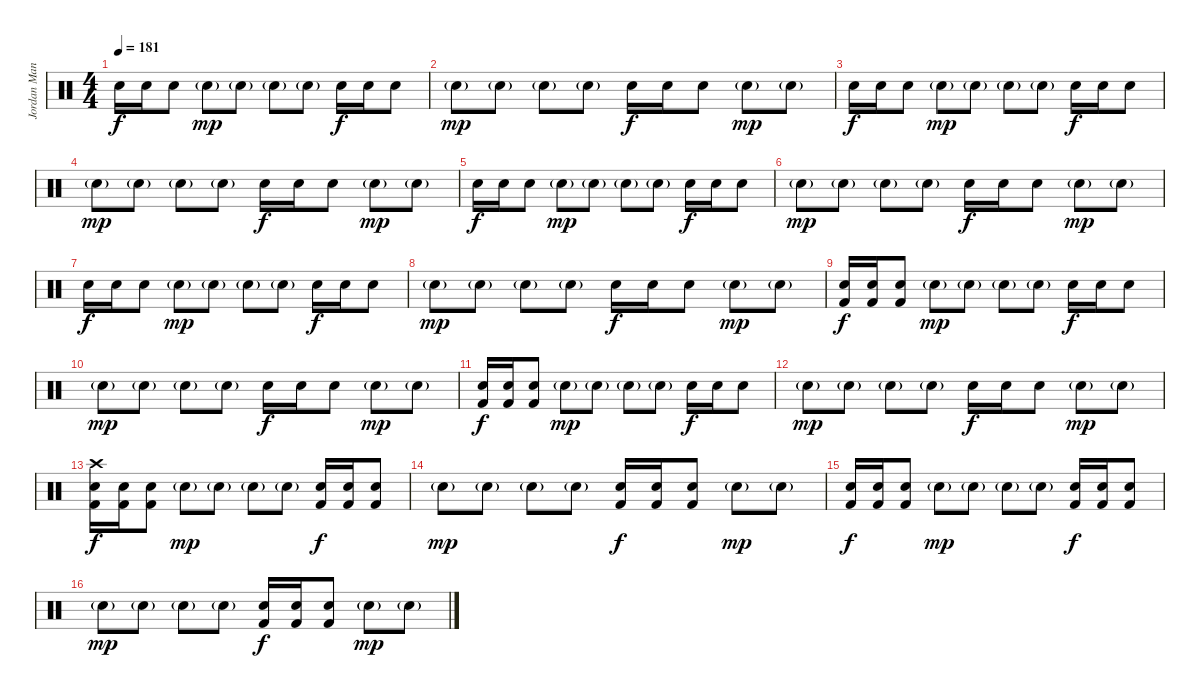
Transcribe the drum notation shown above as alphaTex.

\track ("Jordan Mancino" "Jordan Man") {instrument percussion}
\staff {score}
\articulation defaults
\ts (4 4)
\section ("" "")
\tempo 181
\clef neutral
\ks c "Electric Snare (hit)".16{dy f volume 0} "Electric Snare (hit)".16{volume 7} "Electric Snare (hit)".8 "Electric Snare (hit)"{g}.8{dy mp} "Electric Snare (hit)"{g}.8 "Electric Snare (hit)"{g}.8 "Electric Snare (hit)"{g}.8 "Electric Snare (hit)".16{dy f} "Electric Snare (hit)".16 "Electric Snare (hit)".8
|
"Electric Snare (hit)"{g}.8{dy mp} "Electric Snare (hit)"{g}.8 "Electric Snare (hit)"{g}.8 "Electric Snare (hit)"{g}.8 "Electric Snare (hit)".16{dy f} "Electric Snare (hit)".16 "Electric Snare (hit)".8 "Electric Snare (hit)"{g}.8{dy mp} "Electric Snare (hit)"{g}.8 |
"Electric Snare (hit)".16{dy f} "Electric Snare (hit)".16 "Electric Snare (hit)".8 "Electric Snare (hit)"{g}.8{dy mp} "Electric Snare (hit)"{g}.8 "Electric Snare (hit)"{g}.8 "Electric Snare (hit)"{g}.8 "Electric Snare (hit)".16{dy f} "Electric Snare (hit)".16 "Electric Snare (hit)".8 |
"Electric Snare (hit)"{g}.8{dy mp} "Electric Snare (hit)"{g}.8 "Electric Snare (hit)"{g}.8 "Electric Snare (hit)"{g}.8 "Electric Snare (hit)".16{dy f} "Electric Snare (hit)".16 "Electric Snare (hit)".8 "Electric Snare (hit)"{g}.8{dy mp} "Electric Snare (hit)"{g}.8 |
"Electric Snare (hit)".16{dy f volume 13} "Electric Snare (hit)".16 "Electric Snare (hit)".8 "Electric Snare (hit)"{g}.8{dy mp} "Electric Snare (hit)"{g}.8 "Electric Snare (hit)"{g}.8 "Electric Snare (hit)"{g}.8 "Electric Snare (hit)".16{dy f} "Electric Snare (hit)".16 "Electric Snare (hit)".8 |
"Electric Snare (hit)"{g}.8{dy mp} "Electric Snare (hit)"{g}.8 "Electric Snare (hit)"{g}.8 "Electric Snare (hit)"{g}.8 "Electric Snare (hit)".16{dy f} "Electric Snare (hit)".16 "Electric Snare (hit)".8 "Electric Snare (hit)"{g}.8{dy mp} "Electric Snare (hit)"{g}.8 |
"Electric Snare (hit)".16{dy f} "Electric Snare (hit)".16 "Electric Snare (hit)".8 "Electric Snare (hit)"{g}.8{dy mp} "Electric Snare (hit)"{g}.8 "Electric Snare (hit)"{g}.8 "Electric Snare (hit)"{g}.8 "Electric Snare (hit)".16{dy f} "Electric Snare (hit)".16 "Electric Snare (hit)".8 |
"Electric Snare (hit)"{g}.8{dy mp} "Electric Snare (hit)"{g}.8 "Electric Snare (hit)"{g}.8 "Electric Snare (hit)"{g}.8 "Electric Snare (hit)".16{dy f} "Electric Snare (hit)".16 "Electric Snare (hit)".8 "Electric Snare (hit)"{g}.8{dy mp} "Electric Snare (hit)"{g}.8 |
("Electric Snare (hit)" "Kick (hit) 2").16{dy f} ("Electric Snare (hit)" "Kick (hit) 2").16 ("Electric Snare (hit)" "Kick (hit) 2").8 "Electric Snare (hit)"{g}.8{dy mp} "Electric Snare (hit)"{g}.8 "Electric Snare (hit)"{g}.8 "Electric Snare (hit)"{g}.8 "Electric Snare (hit)".16{dy f} "Electric Snare (hit)".16 "Electric Snare (hit)".8 |
"Electric Snare (hit)"{g}.8{dy mp} "Electric Snare (hit)"{g}.8 "Electric Snare (hit)"{g}.8 "Electric Snare (hit)"{g}.8 "Electric Snare (hit)".16{dy f} "Electric Snare (hit)".16 "Electric Snare (hit)".8 "Electric Snare (hit)"{g}.8{dy mp} "Electric Snare (hit)"{g}.8 |
("Electric Snare (hit)" "Kick (hit) 2").16{dy f} ("Electric Snare (hit)" "Kick (hit) 2").16 ("Electric Snare (hit)" "Kick (hit) 2").8 "Electric Snare (hit)"{g}.8{dy mp} "Electric Snare (hit)"{g}.8 "Electric Snare (hit)"{g}.8 "Electric Snare (hit)"{g}.8 "Electric Snare (hit)".16{dy f} "Electric Snare (hit)".16 "Electric Snare (hit)".8 |
"Electric Snare (hit)"{g}.8{dy mp} "Electric Snare (hit)"{g}.8 "Electric Snare (hit)"{g}.8 "Electric Snare (hit)"{g}.8 "Electric Snare (hit)".16{dy f} "Electric Snare (hit)".16 "Electric Snare (hit)".8 "Electric Snare (hit)"{g}.8{dy mp} "Electric Snare (hit)"{g}.8 |
("Crash high (hit)" "Electric Snare (hit)" "Kick (hit) 2").16{dy f} ("Electric Snare (hit)" "Kick (hit) 2").16 ("Electric Snare (hit)" "Kick (hit) 2").8 "Electric Snare (hit)"{g}.8{dy mp} "Electric Snare (hit)"{g}.8 "Electric Snare (hit)"{g}.8 "Electric Snare (hit)"{g}.8 ("Electric Snare (hit)" "Kick (hit) 2").16{dy f} ("Electric Snare (hit)" "Kick (hit) 2").16 ("Electric Snare (hit)" "Kick (hit) 2").8 |
"Electric Snare (hit)"{g}.8{dy mp} "Electric Snare (hit)"{g}.8 "Electric Snare (hit)"{g}.8 "Electric Snare (hit)"{g}.8 ("Electric Snare (hit)" "Kick (hit) 2").16{dy f} ("Electric Snare (hit)" "Kick (hit) 2").16 ("Electric Snare (hit)" "Kick (hit) 2").8 "Electric Snare (hit)"{g}.8{dy mp} "Electric Snare (hit)"{g}.8 |
("Electric Snare (hit)" "Kick (hit) 2").16{dy f} ("Electric Snare (hit)" "Kick (hit) 2").16 ("Electric Snare (hit)" "Kick (hit) 2").8 "Electric Snare (hit)"{g}.8{dy mp} "Electric Snare (hit)"{g}.8 "Electric Snare (hit)"{g}.8 "Electric Snare (hit)"{g}.8 ("Electric Snare (hit)" "Kick (hit) 2").16{dy f} ("Electric Snare (hit)" "Kick (hit) 2").16 ("Electric Snare (hit)" "Kick (hit) 2").8 |
"Electric Snare (hit)"{g}.8{dy mp} "Electric Snare (hit)"{g}.8 "Electric Snare (hit)"{g}.8 "Electric Snare (hit)"{g}.8 ("Electric Snare (hit)" "Kick (hit) 2").16{dy f} ("Electric Snare (hit)" "Kick (hit) 2").16 ("Electric Snare (hit)" "Kick (hit) 2").8 "Electric Snare (hit)"{g}.8{dy mp} "Electric Snare (hit)"{g}.8
